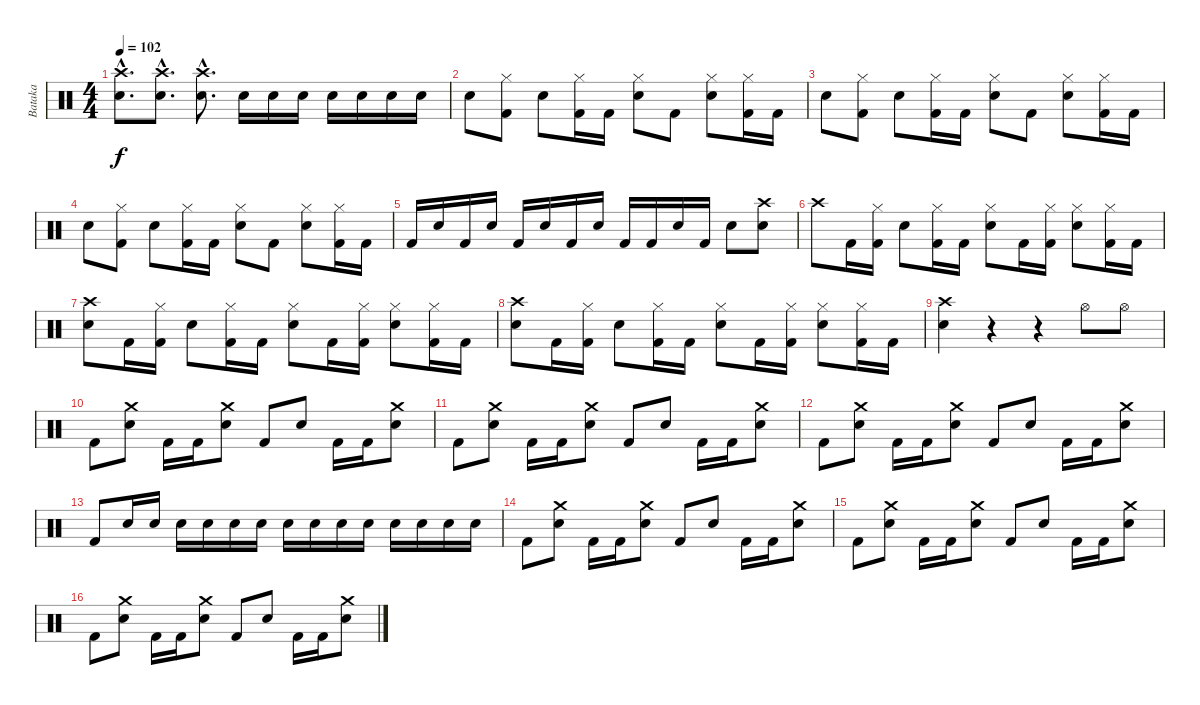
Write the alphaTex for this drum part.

\track ("Bataka" "Bataka") {instrument percussion}
\staff {score}
\articulation defaults
\ts (4 4)
\tempo 102
\clef neutral
\ks c
("Crash high (hit)"{hac} "Snare (hit) 2"{hac}).8{d dy f} ("Crash high (hit)"{hac} "Snare (hit) 2"{hac}).8{d} ("Crash high (hit)"{hac} "Snare (hit) 2"{hac}).8{d} "Snare (hit) 2".16 "Snare (hit) 2".16 "Snare (hit) 2".16 "Snare (hit) 2".16 "Snare (hit) 2".16 "Snare (hit) 2".16 "Snare (hit) 2".16 |
"Snare (hit) 2".8 ("Hi-Hat (closed)" "Kick (hit) 2").8 "Snare (hit) 2".8 ("Hi-Hat (closed)" "Kick (hit) 2").16 "Kick (hit) 2".16 ("Hi-Hat (closed)" "Snare (hit) 2").8 "Kick (hit) 2".8 ("Hi-Hat (closed)" "Snare (hit) 2").8 ("Hi-Hat (closed)" "Kick (hit) 2").16 "Kick (hit) 2".16 |
"Snare (hit) 2".8 ("Hi-Hat (closed)" "Kick (hit) 2").8 "Snare (hit) 2".8 ("Hi-Hat (closed)" "Kick (hit) 2").16 "Kick (hit) 2".16 ("Hi-Hat (closed)" "Snare (hit) 2").8 "Kick (hit) 2".8 ("Hi-Hat (closed)" "Snare (hit) 2").8 ("Hi-Hat (closed)" "Kick (hit) 2").16 "Kick (hit) 2".16 |
"Snare (hit) 2".8 ("Hi-Hat (closed)" "Kick (hit) 2").8 "Snare (hit) 2".8 ("Hi-Hat (closed)" "Kick (hit) 2").16 "Kick (hit) 2".16 ("Hi-Hat (closed)" "Snare (hit) 2").8 "Kick (hit) 2".8 ("Hi-Hat (closed)" "Snare (hit) 2").8 ("Hi-Hat (closed)" "Kick (hit) 2").16 "Kick (hit) 2".16 |
"Kick (hit) 2".16 "Snare (hit) 2".16 "Kick (hit) 2".16 "Snare (hit) 2".16 "Kick (hit) 2".16 "Snare (hit) 2".16 "Kick (hit) 2".16 "Snare (hit) 2".16 "Kick (hit) 2".16 "Kick (hit) 2".16 "Snare (hit) 2".16 "Kick (hit) 2".16 "Snare (hit) 2".8 ("Crash high (hit)" "Snare (hit) 2").8 |
"Crash high (hit)".8 "Kick (hit) 2".16 ("Hi-Hat (closed)" "Kick (hit) 2").16 "Snare (hit) 2".8 ("Hi-Hat (closed)" "Kick (hit) 2").16 "Kick (hit) 2".16 ("Hi-Hat (closed)" "Snare (hit) 2").8 "Kick (hit) 2".16 ("Hi-Hat (closed)" "Kick (hit) 2").16 ("Hi-Hat (closed)" "Snare (hit) 2").8 ("Hi-Hat (closed)" "Kick (hit) 2").16 "Kick (hit) 2".16 |
("Crash high (hit)" "Snare (hit) 2").8 "Kick (hit) 2".16 ("Hi-Hat (closed)" "Kick (hit) 2").16 "Snare (hit) 2".8 ("Hi-Hat (closed)" "Kick (hit) 2").16 "Kick (hit) 2".16 ("Hi-Hat (closed)" "Snare (hit) 2").8 "Kick (hit) 2".16 ("Hi-Hat (closed)" "Kick (hit) 2").16 ("Hi-Hat (closed)" "Snare (hit) 2").8 ("Hi-Hat (closed)" "Kick (hit) 2").16 "Kick (hit) 2".16 |
("Crash high (hit)" "Snare (hit) 2").8 "Kick (hit) 2".16 ("Hi-Hat (closed)" "Kick (hit) 2").16 "Snare (hit) 2".8 ("Hi-Hat (closed)" "Kick (hit) 2").16 "Kick (hit) 2".16 ("Hi-Hat (closed)" "Snare (hit) 2").8 "Kick (hit) 2".16 ("Hi-Hat (closed)" "Kick (hit) 2").16 ("Hi-Hat (closed)" "Snare (hit) 2").8 ("Hi-Hat (closed)" "Kick (hit) 2").16 "Kick (hit) 2".16 |
("Snare (hit) 2" "Crash high (hit)").4 r.4 r.4 "Hi-Hat (open)".8 "Hi-Hat (open)".8 |
"Kick (hit) 2".8 ("Crash medium (hit)" "Snare (hit) 2").8 "Kick (hit) 2".16 "Kick (hit) 2".16 ("Crash medium (hit)" "Snare (hit) 2").8 "Kick (hit) 2".8 "Snare (hit) 2".8 "Kick (hit) 2".16 "Kick (hit) 2".16 ("Crash medium (hit)" "Snare (hit) 2").8 |
"Kick (hit) 2".8 ("Crash medium (hit)" "Snare (hit) 2").8 "Kick (hit) 2".16 "Kick (hit) 2".16 ("Crash medium (hit)" "Snare (hit) 2").8 "Kick (hit) 2".8 "Snare (hit) 2".8 "Kick (hit) 2".16 "Kick (hit) 2".16 ("Crash medium (hit)" "Snare (hit) 2").8 |
"Kick (hit) 2".8 ("Crash medium (hit)" "Snare (hit) 2").8 "Kick (hit) 2".16 "Kick (hit) 2".16 ("Crash medium (hit)" "Snare (hit) 2").8 "Kick (hit) 2".8 "Snare (hit) 2".8 "Kick (hit) 2".16 "Kick (hit) 2".16 ("Crash medium (hit)" "Snare (hit) 2").8 |
"Kick (hit) 2".8 "Snare (hit) 2".16 "Snare (hit) 2".16 "Snare (hit) 2".16 "Snare (hit) 2".16 "Snare (hit) 2".16 "Snare (hit) 2".16 "Snare (hit) 2".16 "Snare (hit) 2".16 "Snare (hit) 2".16 "Snare (hit) 2".16 "Snare (hit) 2".16 "Snare (hit) 2".16 "Snare (hit) 2".16 "Snare (hit) 2".16 |
"Kick (hit) 2".8 ("Crash medium (hit)" "Snare (hit) 2").8 "Kick (hit) 2".16 "Kick (hit) 2".16 ("Crash medium (hit)" "Snare (hit) 2").8 "Kick (hit) 2".8 "Snare (hit) 2".8 "Kick (hit) 2".16 "Kick (hit) 2".16 ("Crash medium (hit)" "Snare (hit) 2").8 |
"Kick (hit) 2".8 ("Crash medium (hit)" "Snare (hit) 2").8 "Kick (hit) 2".16 "Kick (hit) 2".16 ("Crash medium (hit)" "Snare (hit) 2").8 "Kick (hit) 2".8 "Snare (hit) 2".8 "Kick (hit) 2".16 "Kick (hit) 2".16 ("Crash medium (hit)" "Snare (hit) 2").8 |
"Kick (hit) 2".8 ("Crash medium (hit)" "Snare (hit) 2").8 "Kick (hit) 2".16 "Kick (hit) 2".16 ("Crash medium (hit)" "Snare (hit) 2").8 "Kick (hit) 2".8 "Snare (hit) 2".8 "Kick (hit) 2".16 "Kick (hit) 2".16 ("Crash medium (hit)" "Snare (hit) 2").8
